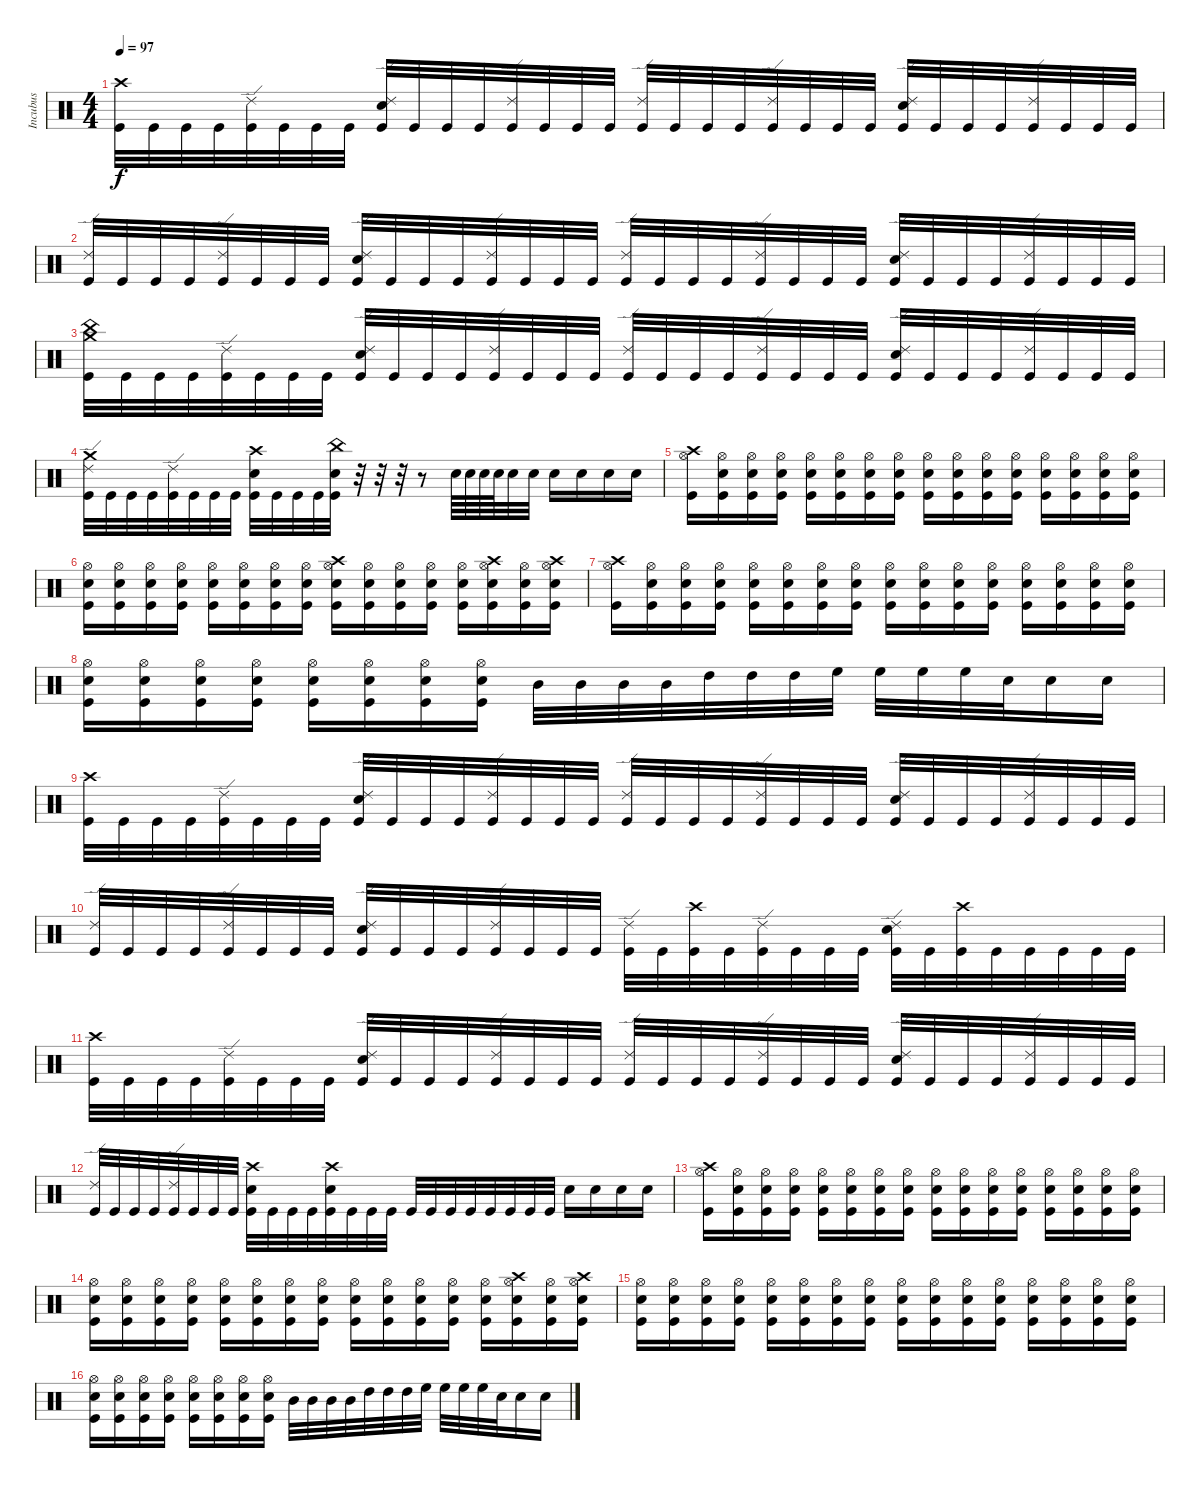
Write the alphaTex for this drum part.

\track ("Incubus" "Incubus") {instrument percussion}
\staff {score}
\articulation defaults
\ts (4 4)
\tempo 97
\clef neutral
\ks c
("Crash high (hit)" "Kick (hit)").32{dy f} "Kick (hit)".32 "Kick (hit)".32 "Kick (hit)".32 ("Ride (edge) 2" "Kick (hit)").32 "Kick (hit)".32 "Kick (hit)".32 "Kick (hit)".32 ("Ride (edge) 2" "Electric Snare (hit)" "Kick (hit)").32 "Kick (hit)".32 "Kick (hit)".32 "Kick (hit)".32 ("Ride (edge) 2" "Kick (hit)").32 "Kick (hit)".32 "Kick (hit)".32 "Kick (hit)".32 ("Ride (edge) 2" "Kick (hit)").32 "Kick (hit)".32 "Kick (hit)".32 "Kick (hit)".32 ("Ride (edge) 2" "Kick (hit)").32 "Kick (hit)".32 "Kick (hit)".32 "Kick (hit)".32 ("Ride (edge) 2" "Electric Snare (hit)" "Kick (hit)").32 "Kick (hit)".32 "Kick (hit)".32 "Kick (hit)".32 ("Ride (edge) 2" "Kick (hit)").32 "Kick (hit)".32 "Kick (hit)".32 "Kick (hit)".32 |
("Ride (edge) 2" "Kick (hit)").32 "Kick (hit)".32 "Kick (hit)".32 "Kick (hit)".32 ("Ride (edge) 2" "Kick (hit)").32 "Kick (hit)".32 "Kick (hit)".32 "Kick (hit)".32 ("Ride (edge) 2" "Electric Snare (hit)" "Kick (hit)").32 "Kick (hit)".32 "Kick (hit)".32 "Kick (hit)".32 ("Ride (edge) 2" "Kick (hit)").32 "Kick (hit)".32 "Kick (hit)".32 "Kick (hit)".32 ("Ride (edge) 2" "Kick (hit)").32 "Kick (hit)".32 "Kick (hit)".32 "Kick (hit)".32 ("Ride (edge) 2" "Kick (hit)").32 "Kick (hit)".32 "Kick (hit)".32 "Kick (hit)".32 ("Ride (edge) 2" "Electric Snare (hit)" "Kick (hit)").32 "Kick (hit)".32 "Kick (hit)".32 "Kick (hit)".32 ("Ride (edge) 2" "Kick (hit)").32 "Kick (hit)".32 "Kick (hit)".32 "Kick (hit)".32 |
("Crash medium (hit)" "China (hit)" "Kick (hit)").32 "Kick (hit)".32 "Kick (hit)".32 "Kick (hit)".32 ("Ride (edge) 2" "Kick (hit)").32 "Kick (hit)".32 "Kick (hit)".32 "Kick (hit)".32 ("Ride (edge) 2" "Electric Snare (hit)" "Kick (hit)").32 "Kick (hit)".32 "Kick (hit)".32 "Kick (hit)".32 ("Ride (edge) 2" "Kick (hit)").32 "Kick (hit)".32 "Kick (hit)".32 "Kick (hit)".32 ("Ride (edge) 2" "Kick (hit)").32 "Kick (hit)".32 "Kick (hit)".32 "Kick (hit)".32 ("Ride (edge) 2" "Kick (hit)").32 "Kick (hit)".32 "Kick (hit)".32 "Kick (hit)".32 ("Ride (edge) 2" "Electric Snare (hit)" "Kick (hit)").32 "Kick (hit)".32 "Kick (hit)".32 "Kick (hit)".32 ("Ride (edge) 2" "Kick (hit)").32 "Kick (hit)".32 "Kick (hit)".32 "Kick (hit)".32 |
("Crash medium (hit)" "Ride (edge) 2" "Kick (hit)").32 "Kick (hit)".32 "Kick (hit)".32 "Kick (hit)".32 ("Ride (edge) 2" "Kick (hit)").32 "Kick (hit)".32 "Kick (hit)".32 "Kick (hit)".32 ("Crash high (hit)" "Electric Snare (hit)" "Kick (hit)").32 "Kick (hit)".32 "Kick (hit)".32 "Kick (hit)".32 ("China (hit)" "Electric Snare (hit)" "Kick (hit)").32 r.32 r.32 r.32 r.8 "Electric Snare (hit)".64 "Electric Snare (hit)".64 "Electric Snare (hit)".64 "Electric Snare (hit)".64 "Electric Snare (hit)".32 "Electric Snare (hit)".32 "Electric Snare (hit)".16 "Electric Snare (hit)".16 "Electric Snare (hit)".16 "Electric Snare (hit)".16 |
("Crash high (hit)" "Hi-Hat (open)" "Kick (hit)").16 ("Electric Snare (hit)" "Hi-Hat (open)" "Kick (hit)").16 ("Electric Snare (hit)" "Hi-Hat (open)" "Kick (hit)").16 ("Electric Snare (hit)" "Hi-Hat (open)" "Kick (hit)").16 ("Electric Snare (hit)" "Hi-Hat (open)" "Kick (hit)").16 ("Electric Snare (hit)" "Hi-Hat (open)" "Kick (hit)").16 ("Electric Snare (hit)" "Hi-Hat (open)" "Kick (hit)").16 ("Electric Snare (hit)" "Hi-Hat (open)" "Kick (hit)").16 ("Electric Snare (hit)" "Hi-Hat (open)" "Kick (hit)").16 ("Electric Snare (hit)" "Hi-Hat (open)" "Kick (hit)").16 ("Electric Snare (hit)" "Hi-Hat (open)" "Kick (hit)").16 ("Electric Snare (hit)" "Hi-Hat (open)" "Kick (hit)").16 ("Electric Snare (hit)" "Hi-Hat (open)" "Kick (hit)").16 ("Electric Snare (hit)" "Hi-Hat (open)" "Kick (hit)").16 ("Electric Snare (hit)" "Hi-Hat (open)" "Kick (hit)").16 ("Electric Snare (hit)" "Hi-Hat (open)" "Kick (hit)").16 |
("Electric Snare (hit)" "Hi-Hat (open)" "Kick (hit)").16 ("Electric Snare (hit)" "Hi-Hat (open)" "Kick (hit)").16 ("Electric Snare (hit)" "Hi-Hat (open)" "Kick (hit)").16 ("Electric Snare (hit)" "Hi-Hat (open)" "Kick (hit)").16 ("Electric Snare (hit)" "Hi-Hat (open)" "Kick (hit)").16 ("Electric Snare (hit)" "Hi-Hat (open)" "Kick (hit)").16 ("Electric Snare (hit)" "Hi-Hat (open)" "Kick (hit)").16 ("Electric Snare (hit)" "Hi-Hat (open)" "Kick (hit)").16 ("Crash high (hit)" "Electric Snare (hit)" "Hi-Hat (open)" "Kick (hit)").16 ("Electric Snare (hit)" "Hi-Hat (open)" "Kick (hit)").16 ("Electric Snare (hit)" "Hi-Hat (open)" "Kick (hit)").16 ("Electric Snare (hit)" "Hi-Hat (open)" "Kick (hit)").16 ("Electric Snare (hit)" "Hi-Hat (open)" "Kick (hit)").16 ("Crash high (hit)" "Electric Snare (hit)" "Hi-Hat (open)" "Kick (hit)").16 ("Electric Snare (hit)" "Hi-Hat (open)" "Kick (hit)").16 ("Crash high (hit)" "Electric Snare (hit)" "Kick (hit)" "Hi-Hat (open)").16 |
("Crash high (hit)" "Hi-Hat (open)" "Kick (hit)").16 ("Electric Snare (hit)" "Hi-Hat (open)" "Kick (hit)").16 ("Electric Snare (hit)" "Hi-Hat (open)" "Kick (hit)").16 ("Electric Snare (hit)" "Hi-Hat (open)" "Kick (hit)").16 ("Electric Snare (hit)" "Hi-Hat (open)" "Kick (hit)").16 ("Electric Snare (hit)" "Hi-Hat (open)" "Kick (hit)").16 ("Electric Snare (hit)" "Hi-Hat (open)" "Kick (hit)").16 ("Electric Snare (hit)" "Hi-Hat (open)" "Kick (hit)").16 ("Electric Snare (hit)" "Hi-Hat (open)" "Kick (hit)").16 ("Electric Snare (hit)" "Hi-Hat (open)" "Kick (hit)").16 ("Electric Snare (hit)" "Hi-Hat (open)" "Kick (hit)").16 ("Electric Snare (hit)" "Hi-Hat (open)" "Kick (hit)").16 ("Electric Snare (hit)" "Hi-Hat (open)" "Kick (hit)").16 ("Electric Snare (hit)" "Hi-Hat (open)" "Kick (hit)").16 ("Electric Snare (hit)" "Hi-Hat (open)" "Kick (hit)").16 ("Electric Snare (hit)" "Hi-Hat (open)" "Kick (hit)").16 |
("Electric Snare (hit)" "Hi-Hat (open)" "Kick (hit)").16 ("Electric Snare (hit)" "Hi-Hat (open)" "Kick (hit)").16 ("Electric Snare (hit)" "Hi-Hat (open)" "Kick (hit)").16 ("Electric Snare (hit)" "Hi-Hat (open)" "Kick (hit)").16 ("Electric Snare (hit)" "Hi-Hat (open)" "Kick (hit)").16 ("Electric Snare (hit)" "Hi-Hat (open)" "Kick (hit)").16 ("Electric Snare (hit)" "Hi-Hat (open)" "Kick (hit)").16 ("Electric Snare (hit)" "Hi-Hat (open)" "Kick (hit)").16 "Mid Tom (hit)".32 "Mid Tom (hit)".32 "Mid Tom (hit)".32 "Mid Tom (hit)".32 "High Tom (hit)".32 "High Tom (hit)".32 "High Tom (hit)".32 "High Floor Tom (hit)".32 "High Floor Tom (hit)".32 "High Floor Tom (hit)".32 "High Floor Tom (hit)".32 "Electric Snare (hit)".32 "Electric Snare (hit)".16 "Electric Snare (hit)".16 |
("Crash high (hit)" "Kick (hit)").32 "Kick (hit)".32 "Kick (hit)".32 "Kick (hit)".32 ("Ride (edge) 2" "Kick (hit)").32 "Kick (hit)".32 "Kick (hit)".32 "Kick (hit)".32 ("Ride (edge) 2" "Electric Snare (hit)" "Kick (hit)").32 "Kick (hit)".32 "Kick (hit)".32 "Kick (hit)".32 ("Ride (edge) 2" "Kick (hit)").32 "Kick (hit)".32 "Kick (hit)".32 "Kick (hit)".32 ("Ride (edge) 2" "Kick (hit)").32 "Kick (hit)".32 "Kick (hit)".32 "Kick (hit)".32 ("Ride (edge) 2" "Kick (hit)").32 "Kick (hit)".32 "Kick (hit)".32 "Kick (hit)".32 ("Ride (edge) 2" "Electric Snare (hit)" "Kick (hit)").32 "Kick (hit)".32 "Kick (hit)".32 "Kick (hit)".32 ("Ride (edge) 2" "Kick (hit)").32 "Kick (hit)".32 "Kick (hit)".32 "Kick (hit)".32 |
("Ride (edge) 2" "Kick (hit)").32 "Kick (hit)".32 "Kick (hit)".32 "Kick (hit)".32 ("Ride (edge) 2" "Kick (hit)").32 "Kick (hit)".32 "Kick (hit)".32 "Kick (hit)".32 ("Ride (edge) 2" "Electric Snare (hit)" "Kick (hit)").32 "Kick (hit)".32 "Kick (hit)".32 "Kick (hit)".32 ("Ride (edge) 2" "Kick (hit)").32 "Kick (hit)".32 "Kick (hit)".32 "Kick (hit)".32 ("Ride (edge) 2" "Kick (hit)").32 "Kick (hit)".32 ("Crash high (hit)" "Kick (hit)").32 "Kick (hit)".32 ("Ride (edge) 2" "Kick (hit)").32 "Kick (hit)".32 "Kick (hit)".32 "Kick (hit)".32 ("Ride (edge) 2" "Electric Snare (hit)" "Kick (hit)").32 "Kick (hit)".32 ("Crash high (hit)" "Kick (hit)").32 "Kick (hit)".32 "Kick (hit)".32 "Kick (hit)".32 "Kick (hit)".32 "Kick (hit)".32 |
("Crash high (hit)" "Kick (hit)").32 "Kick (hit)".32 "Kick (hit)".32 "Kick (hit)".32 ("Ride (edge) 2" "Kick (hit)").32 "Kick (hit)".32 "Kick (hit)".32 "Kick (hit)".32 ("Ride (edge) 2" "Electric Snare (hit)" "Kick (hit)").32 "Kick (hit)".32 "Kick (hit)".32 "Kick (hit)".32 ("Ride (edge) 2" "Kick (hit)").32 "Kick (hit)".32 "Kick (hit)".32 "Kick (hit)".32 ("Ride (edge) 2" "Kick (hit)").32 "Kick (hit)".32 "Kick (hit)".32 "Kick (hit)".32 ("Ride (edge) 2" "Kick (hit)").32 "Kick (hit)".32 "Kick (hit)".32 "Kick (hit)".32 ("Ride (edge) 2" "Electric Snare (hit)" "Kick (hit)").32 "Kick (hit)".32 "Kick (hit)".32 "Kick (hit)".32 ("Ride (edge) 2" "Kick (hit)").32 "Kick (hit)".32 "Kick (hit)".32 "Kick (hit)".32 |
("Ride (edge) 2" "Kick (hit)").32 "Kick (hit)".32 "Kick (hit)".32 "Kick (hit)".32 ("Ride (edge) 2" "Kick (hit)").32 "Kick (hit)".32 "Kick (hit)".32 "Kick (hit)".32 ("Crash high (hit)" "Electric Snare (hit)" "Kick (hit)").32 "Kick (hit)".32 "Kick (hit)".32 "Kick (hit)".32 ("Crash high (hit)" "Electric Snare (hit)" "Kick (hit)").32 "Kick (hit)".32 "Kick (hit)".32 "Kick (hit)".32 "Kick (hit)".32 "Kick (hit)".32 "Kick (hit)".32 "Kick (hit)".32 "Kick (hit)".32 "Kick (hit)".32 "Kick (hit)".32 "Kick (hit)".32 "Electric Snare (hit)".16 "Electric Snare (hit)".16 "Electric Snare (hit)".16 "Electric Snare (hit)".16 |
("Crash high (hit)" "Hi-Hat (open)" "Kick (hit)").16 ("Electric Snare (hit)" "Hi-Hat (open)" "Kick (hit)").16 ("Electric Snare (hit)" "Hi-Hat (open)" "Kick (hit)").16 ("Electric Snare (hit)" "Hi-Hat (open)" "Kick (hit)").16 ("Electric Snare (hit)" "Hi-Hat (open)" "Kick (hit)").16 ("Electric Snare (hit)" "Hi-Hat (open)" "Kick (hit)").16 ("Electric Snare (hit)" "Hi-Hat (open)" "Kick (hit)").16 ("Electric Snare (hit)" "Hi-Hat (open)" "Kick (hit)").16 ("Electric Snare (hit)" "Hi-Hat (open)" "Kick (hit)").16 ("Electric Snare (hit)" "Hi-Hat (open)" "Kick (hit)").16 ("Electric Snare (hit)" "Hi-Hat (open)" "Kick (hit)").16 ("Electric Snare (hit)" "Hi-Hat (open)" "Kick (hit)").16 ("Electric Snare (hit)" "Hi-Hat (open)" "Kick (hit)").16 ("Electric Snare (hit)" "Hi-Hat (open)" "Kick (hit)").16 ("Electric Snare (hit)" "Hi-Hat (open)" "Kick (hit)").16 ("Electric Snare (hit)" "Hi-Hat (open)" "Kick (hit)").16 |
("Electric Snare (hit)" "Hi-Hat (open)" "Kick (hit)").16 ("Electric Snare (hit)" "Hi-Hat (open)" "Kick (hit)").16 ("Electric Snare (hit)" "Hi-Hat (open)" "Kick (hit)").16 ("Electric Snare (hit)" "Hi-Hat (open)" "Kick (hit)").16 ("Electric Snare (hit)" "Hi-Hat (open)" "Kick (hit)").16 ("Electric Snare (hit)" "Hi-Hat (open)" "Kick (hit)").16 ("Electric Snare (hit)" "Hi-Hat (open)" "Kick (hit)").16 ("Electric Snare (hit)" "Hi-Hat (open)" "Kick (hit)").16 ("Electric Snare (hit)" "Hi-Hat (open)" "Kick (hit)").16 ("Electric Snare (hit)" "Hi-Hat (open)" "Kick (hit)").16 ("Electric Snare (hit)" "Hi-Hat (open)" "Kick (hit)").16 ("Electric Snare (hit)" "Hi-Hat (open)" "Kick (hit)").16 ("Electric Snare (hit)" "Hi-Hat (open)" "Kick (hit)").16 ("Crash high (hit)" "Electric Snare (hit)" "Hi-Hat (open)" "Kick (hit)").16 ("Electric Snare (hit)" "Hi-Hat (open)" "Kick (hit)").16 ("Crash high (hit)" "Electric Snare (hit)" "Kick (hit)" "Hi-Hat (open)").16 |
("Electric Snare (hit)" "Hi-Hat (open)" "Kick (hit)").16 ("Electric Snare (hit)" "Hi-Hat (open)" "Kick (hit)").16 ("Electric Snare (hit)" "Hi-Hat (open)" "Kick (hit)").16 ("Electric Snare (hit)" "Hi-Hat (open)" "Kick (hit)").16 ("Electric Snare (hit)" "Hi-Hat (open)" "Kick (hit)").16 ("Electric Snare (hit)" "Hi-Hat (open)" "Kick (hit)").16 ("Electric Snare (hit)" "Hi-Hat (open)" "Kick (hit)").16 ("Electric Snare (hit)" "Hi-Hat (open)" "Kick (hit)").16 ("Electric Snare (hit)" "Hi-Hat (open)" "Kick (hit)").16 ("Electric Snare (hit)" "Hi-Hat (open)" "Kick (hit)").16 ("Electric Snare (hit)" "Hi-Hat (open)" "Kick (hit)").16 ("Electric Snare (hit)" "Hi-Hat (open)" "Kick (hit)").16 ("Electric Snare (hit)" "Hi-Hat (open)" "Kick (hit)").16 ("Electric Snare (hit)" "Hi-Hat (open)" "Kick (hit)").16 ("Electric Snare (hit)" "Hi-Hat (open)" "Kick (hit)").16 ("Electric Snare (hit)" "Hi-Hat (open)" "Kick (hit)").16 |
("Electric Snare (hit)" "Hi-Hat (open)" "Kick (hit)").16 ("Electric Snare (hit)" "Hi-Hat (open)" "Kick (hit)").16 ("Electric Snare (hit)" "Hi-Hat (open)" "Kick (hit)").16 ("Electric Snare (hit)" "Hi-Hat (open)" "Kick (hit)").16 ("Electric Snare (hit)" "Hi-Hat (open)" "Kick (hit)").16 ("Electric Snare (hit)" "Hi-Hat (open)" "Kick (hit)").16 ("Electric Snare (hit)" "Hi-Hat (open)" "Kick (hit)").16 ("Electric Snare (hit)" "Hi-Hat (open)" "Kick (hit)").16 "Mid Tom (hit)".32 "Mid Tom (hit)".32 "Mid Tom (hit)".32 "Mid Tom (hit)".32 "High Tom (hit)".32 "High Tom (hit)".32 "High Tom (hit)".32 "High Floor Tom (hit)".32 "High Floor Tom (hit)".32 "High Floor Tom (hit)".32 "High Floor Tom (hit)".32 "Electric Snare (hit)".32 "Electric Snare (hit)".16 "Electric Snare (hit)".16
